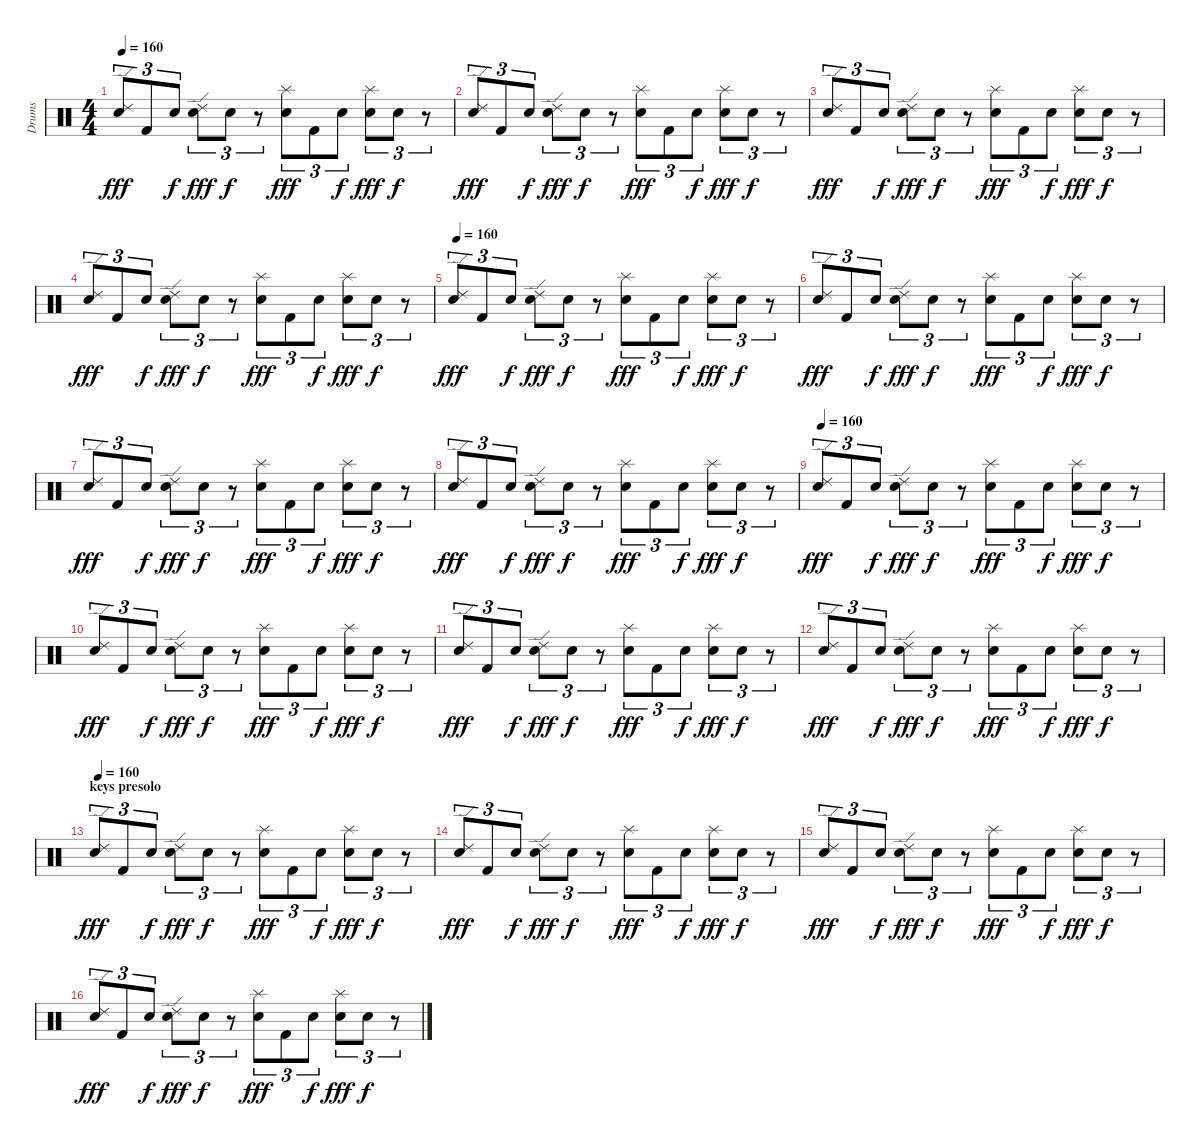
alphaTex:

\track ("Drums" "Drums") {instrument percussion}
\staff {score}
\articulation defaults
\ts (4 4)
\tempo 160
\clef neutral
\ks c
("Ride (edge) 2" "Electric Snare (hit)").8{tu (3 2) dy fff} "Kick (hit) 2".8{tu (3 2)} "Electric Snare (hit)".8{tu (3 2) dy f} ("Ride (edge) 2" "Electric Snare (hit)").8{tu (3 2) dy fff} "Electric Snare (hit)".8{tu (3 2) dy f} r.8{tu (3 2)} ("Splash (hit)" "Snare (hit) 2").8{tu (3 2) dy fff} "Kick (hit) 2".8{tu (3 2)} "Snare (hit) 2".8{tu (3 2) dy f} ("Splash (hit)" "Snare (hit) 2").8{tu (3 2) dy fff} "Snare (hit) 2".8{tu (3 2) dy f} r.8{tu (3 2)} |
("Ride (edge) 2" "Electric Snare (hit)").8{tu (3 2) dy fff} "Kick (hit) 2".8{tu (3 2)} "Electric Snare (hit)".8{tu (3 2) dy f} ("Ride (edge) 2" "Electric Snare (hit)").8{tu (3 2) dy fff} "Electric Snare (hit)".8{tu (3 2) dy f} r.8{tu (3 2)} ("Splash (hit)" "Snare (hit) 2").8{tu (3 2) dy fff} "Kick (hit) 2".8{tu (3 2)} "Snare (hit) 2".8{tu (3 2) dy f} ("Splash (hit)" "Snare (hit) 2").8{tu (3 2) dy fff} "Snare (hit) 2".8{tu (3 2) dy f} r.8{tu (3 2)} |
("Ride (edge) 2" "Electric Snare (hit)").8{tu (3 2) dy fff} "Kick (hit) 2".8{tu (3 2)} "Electric Snare (hit)".8{tu (3 2) dy f} ("Ride (edge) 2" "Electric Snare (hit)").8{tu (3 2) dy fff} "Electric Snare (hit)".8{tu (3 2) dy f} r.8{tu (3 2)} ("Splash (hit)" "Snare (hit) 2").8{tu (3 2) dy fff} "Kick (hit) 2".8{tu (3 2)} "Snare (hit) 2".8{tu (3 2) dy f} ("Splash (hit)" "Snare (hit) 2").8{tu (3 2) dy fff} "Snare (hit) 2".8{tu (3 2) dy f} r.8{tu (3 2)} |
("Ride (edge) 2" "Electric Snare (hit)").8{tu (3 2) dy fff} "Kick (hit) 2".8{tu (3 2)} "Electric Snare (hit)".8{tu (3 2) dy f} ("Ride (edge) 2" "Electric Snare (hit)").8{tu (3 2) dy fff} "Electric Snare (hit)".8{tu (3 2) dy f} r.8{tu (3 2)} ("Splash (hit)" "Snare (hit) 2").8{tu (3 2) dy fff} "Kick (hit) 2".8{tu (3 2)} "Snare (hit) 2".8{tu (3 2) dy f} ("Splash (hit)" "Snare (hit) 2").8{tu (3 2) dy fff} "Snare (hit) 2".8{tu (3 2) dy f} r.8{tu (3 2)} |
\tempo 160
("Ride (edge) 2" "Electric Snare (hit)").8{tu (3 2) dy fff} "Kick (hit) 2".8{tu (3 2)} "Electric Snare (hit)".8{tu (3 2) dy f} ("Ride (edge) 2" "Electric Snare (hit)").8{tu (3 2) dy fff} "Electric Snare (hit)".8{tu (3 2) dy f} r.8{tu (3 2)} ("Splash (hit)" "Snare (hit) 2").8{tu (3 2) dy fff} "Kick (hit) 2".8{tu (3 2)} "Snare (hit) 2".8{tu (3 2) dy f} ("Splash (hit)" "Snare (hit) 2").8{tu (3 2) dy fff} "Snare (hit) 2".8{tu (3 2) dy f} r.8{tu (3 2)} |
("Ride (edge) 2" "Electric Snare (hit)").8{tu (3 2) dy fff} "Kick (hit) 2".8{tu (3 2)} "Electric Snare (hit)".8{tu (3 2) dy f} ("Ride (edge) 2" "Electric Snare (hit)").8{tu (3 2) dy fff} "Electric Snare (hit)".8{tu (3 2) dy f} r.8{tu (3 2)} ("Splash (hit)" "Snare (hit) 2").8{tu (3 2) dy fff} "Kick (hit) 2".8{tu (3 2)} "Snare (hit) 2".8{tu (3 2) dy f} ("Splash (hit)" "Snare (hit) 2").8{tu (3 2) dy fff} "Snare (hit) 2".8{tu (3 2) dy f} r.8{tu (3 2)} |
("Ride (edge) 2" "Electric Snare (hit)").8{tu (3 2) dy fff} "Kick (hit) 2".8{tu (3 2)} "Electric Snare (hit)".8{tu (3 2) dy f} ("Ride (edge) 2" "Electric Snare (hit)").8{tu (3 2) dy fff} "Electric Snare (hit)".8{tu (3 2) dy f} r.8{tu (3 2)} ("Splash (hit)" "Snare (hit) 2").8{tu (3 2) dy fff} "Kick (hit) 2".8{tu (3 2)} "Snare (hit) 2".8{tu (3 2) dy f} ("Splash (hit)" "Snare (hit) 2").8{tu (3 2) dy fff} "Snare (hit) 2".8{tu (3 2) dy f} r.8{tu (3 2)} |
("Ride (edge) 2" "Electric Snare (hit)").8{tu (3 2) dy fff} "Kick (hit) 2".8{tu (3 2)} "Electric Snare (hit)".8{tu (3 2) dy f} ("Ride (edge) 2" "Electric Snare (hit)").8{tu (3 2) dy fff} "Electric Snare (hit)".8{tu (3 2) dy f} r.8{tu (3 2)} ("Splash (hit)" "Snare (hit) 2").8{tu (3 2) dy fff} "Kick (hit) 2".8{tu (3 2)} "Snare (hit) 2".8{tu (3 2) dy f} ("Splash (hit)" "Snare (hit) 2").8{tu (3 2) dy fff} "Snare (hit) 2".8{tu (3 2) dy f} r.8{tu (3 2)} |
\tempo 160
("Ride (edge) 2" "Electric Snare (hit)").8{tu (3 2) dy fff} "Kick (hit) 2".8{tu (3 2)} "Electric Snare (hit)".8{tu (3 2) dy f} ("Ride (edge) 2" "Electric Snare (hit)").8{tu (3 2) dy fff} "Electric Snare (hit)".8{tu (3 2) dy f} r.8{tu (3 2)} ("Splash (hit)" "Snare (hit) 2").8{tu (3 2) dy fff} "Kick (hit) 2".8{tu (3 2)} "Snare (hit) 2".8{tu (3 2) dy f} ("Splash (hit)" "Snare (hit) 2").8{tu (3 2) dy fff} "Snare (hit) 2".8{tu (3 2) dy f} r.8{tu (3 2)} |
("Ride (edge) 2" "Electric Snare (hit)").8{tu (3 2) dy fff} "Kick (hit) 2".8{tu (3 2)} "Electric Snare (hit)".8{tu (3 2) dy f} ("Ride (edge) 2" "Electric Snare (hit)").8{tu (3 2) dy fff} "Electric Snare (hit)".8{tu (3 2) dy f} r.8{tu (3 2)} ("Splash (hit)" "Snare (hit) 2").8{tu (3 2) dy fff} "Kick (hit) 2".8{tu (3 2)} "Snare (hit) 2".8{tu (3 2) dy f} ("Splash (hit)" "Snare (hit) 2").8{tu (3 2) dy fff} "Snare (hit) 2".8{tu (3 2) dy f} r.8{tu (3 2)} |
("Ride (edge) 2" "Electric Snare (hit)").8{tu (3 2) dy fff} "Kick (hit) 2".8{tu (3 2)} "Electric Snare (hit)".8{tu (3 2) dy f} ("Ride (edge) 2" "Electric Snare (hit)").8{tu (3 2) dy fff} "Electric Snare (hit)".8{tu (3 2) dy f} r.8{tu (3 2)} ("Splash (hit)" "Snare (hit) 2").8{tu (3 2) dy fff} "Kick (hit) 2".8{tu (3 2)} "Snare (hit) 2".8{tu (3 2) dy f} ("Splash (hit)" "Snare (hit) 2").8{tu (3 2) dy fff} "Snare (hit) 2".8{tu (3 2) dy f} r.8{tu (3 2)} |
("Ride (edge) 2" "Electric Snare (hit)").8{tu (3 2) dy fff} "Kick (hit) 2".8{tu (3 2)} "Electric Snare (hit)".8{tu (3 2) dy f} ("Ride (edge) 2" "Electric Snare (hit)").8{tu (3 2) dy fff} "Electric Snare (hit)".8{tu (3 2) dy f} r.8{tu (3 2)} ("Splash (hit)" "Snare (hit) 2").8{tu (3 2) dy fff} "Kick (hit) 2".8{tu (3 2)} "Snare (hit) 2".8{tu (3 2) dy f} ("Splash (hit)" "Snare (hit) 2").8{tu (3 2) dy fff} "Snare (hit) 2".8{tu (3 2) dy f} r.8{tu (3 2)} |
\section ("" "keys presolo")
\tempo 160
("Ride (edge) 2" "Electric Snare (hit)").8{tu (3 2) dy fff} "Kick (hit) 2".8{tu (3 2)} "Electric Snare (hit)".8{tu (3 2) dy f} ("Ride (edge) 2" "Electric Snare (hit)").8{tu (3 2) dy fff} "Electric Snare (hit)".8{tu (3 2) dy f} r.8{tu (3 2)} ("Splash (hit)" "Snare (hit) 2").8{tu (3 2) dy fff} "Kick (hit) 2".8{tu (3 2)} "Snare (hit) 2".8{tu (3 2) dy f} ("Splash (hit)" "Snare (hit) 2").8{tu (3 2) dy fff} "Snare (hit) 2".8{tu (3 2) dy f} r.8{tu (3 2)} |
("Ride (edge) 2" "Electric Snare (hit)").8{tu (3 2) dy fff} "Kick (hit) 2".8{tu (3 2)} "Electric Snare (hit)".8{tu (3 2) dy f} ("Ride (edge) 2" "Electric Snare (hit)").8{tu (3 2) dy fff} "Electric Snare (hit)".8{tu (3 2) dy f} r.8{tu (3 2)} ("Splash (hit)" "Snare (hit) 2").8{tu (3 2) dy fff} "Kick (hit) 2".8{tu (3 2)} "Snare (hit) 2".8{tu (3 2) dy f} ("Splash (hit)" "Snare (hit) 2").8{tu (3 2) dy fff} "Snare (hit) 2".8{tu (3 2) dy f} r.8{tu (3 2)} |
("Ride (edge) 2" "Electric Snare (hit)").8{tu (3 2) dy fff} "Kick (hit) 2".8{tu (3 2)} "Electric Snare (hit)".8{tu (3 2) dy f} ("Ride (edge) 2" "Electric Snare (hit)").8{tu (3 2) dy fff} "Electric Snare (hit)".8{tu (3 2) dy f} r.8{tu (3 2)} ("Splash (hit)" "Snare (hit) 2").8{tu (3 2) dy fff} "Kick (hit) 2".8{tu (3 2)} "Snare (hit) 2".8{tu (3 2) dy f} ("Splash (hit)" "Snare (hit) 2").8{tu (3 2) dy fff} "Snare (hit) 2".8{tu (3 2) dy f} r.8{tu (3 2)} |
("Ride (edge) 2" "Electric Snare (hit)").8{tu (3 2) dy fff} "Kick (hit) 2".8{tu (3 2)} "Electric Snare (hit)".8{tu (3 2) dy f} ("Ride (edge) 2" "Electric Snare (hit)").8{tu (3 2) dy fff} "Electric Snare (hit)".8{tu (3 2) dy f} r.8{tu (3 2)} ("Splash (hit)" "Snare (hit) 2").8{tu (3 2) dy fff} "Kick (hit) 2".8{tu (3 2)} "Snare (hit) 2".8{tu (3 2) dy f} ("Splash (hit)" "Snare (hit) 2").8{tu (3 2) dy fff} "Snare (hit) 2".8{tu (3 2) dy f} r.8{tu (3 2)}
